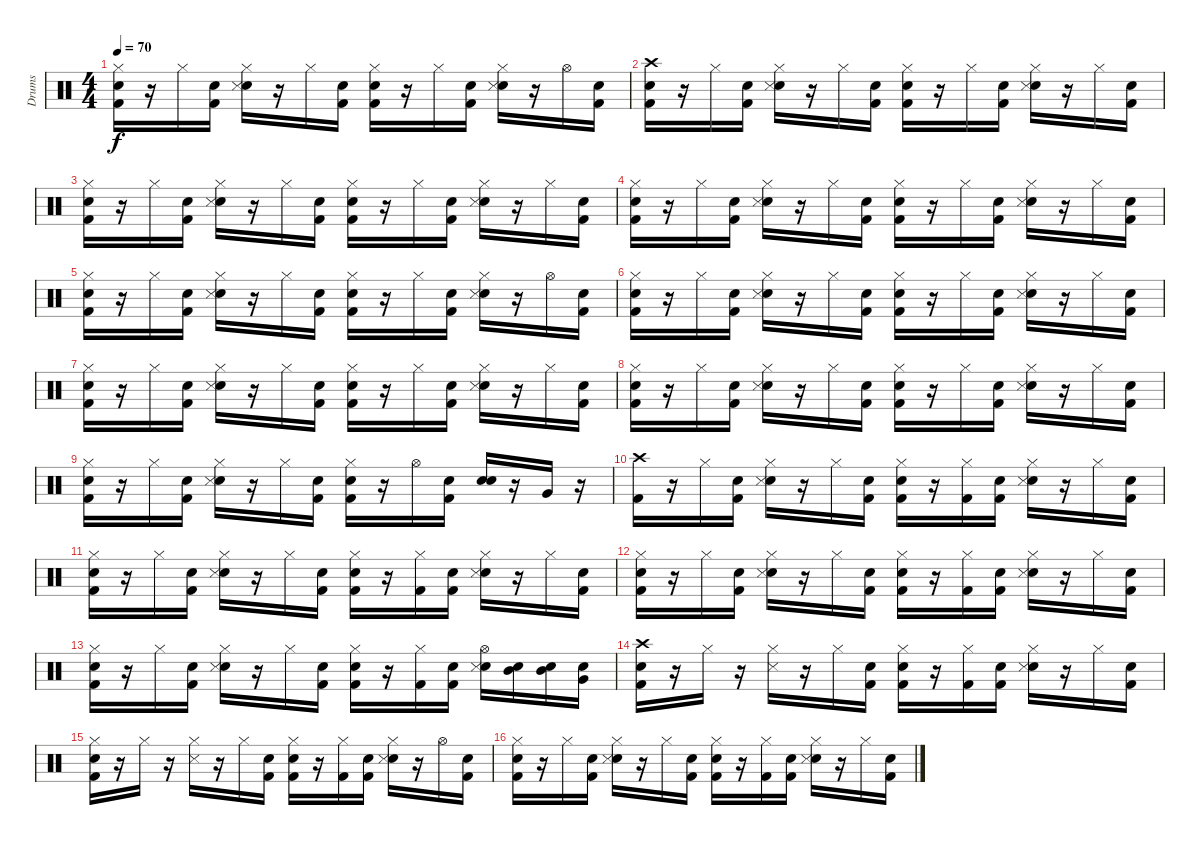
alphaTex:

\track ("Drums" "Drums") {instrument percussion}
\staff {score}
\articulation defaults
\ts (4 4)
\tempo 70
\clef neutral
\ks c
("Snare (hit)" "Kick (hit) 2" "Hi-Hat (closed)").16{dy f} r.16 "Hi-Hat (closed)".16 ("Snare (hit)" "Kick (hit) 2").16 ("Snare (hit)" "Snare (side stick) 3" "Hi-Hat (closed)").16 r.16 "Hi-Hat (closed)".16 ("Snare (hit)" "Kick (hit) 2").16 ("Snare (hit)" "Kick (hit) 2" "Hi-Hat (closed)").16 r.16 "Hi-Hat (closed)".16 ("Snare (hit)" "Kick (hit) 2").16 ("Snare (hit)" "Snare (side stick) 3" "Hi-Hat (closed)").16 r.16 "Hi-Hat (open)".16 ("Snare (hit)" "Kick (hit) 2").16 |
("Snare (hit)" "Kick (hit) 2" "Crash high (hit)").16 r.16 "Hi-Hat (closed)".16 ("Snare (hit)" "Kick (hit) 2").16 ("Snare (hit)" "Snare (side stick) 3" "Hi-Hat (closed)").16 r.16 "Hi-Hat (closed)".16 ("Snare (hit)" "Kick (hit) 2").16 ("Snare (hit)" "Kick (hit) 2" "Hi-Hat (closed)").16 r.16 "Hi-Hat (closed)".16 ("Snare (hit)" "Kick (hit) 2").16 ("Snare (hit)" "Snare (side stick) 3" "Hi-Hat (closed)").16 r.16 "Hi-Hat (closed)".16 ("Snare (hit)" "Kick (hit) 2").16 |
("Snare (hit)" "Kick (hit) 2" "Hi-Hat (closed)").16 r.16 "Hi-Hat (closed)".16 ("Snare (hit)" "Kick (hit) 2").16 ("Snare (hit)" "Snare (side stick) 3" "Hi-Hat (closed)").16 r.16 "Hi-Hat (closed)".16 ("Snare (hit)" "Kick (hit) 2").16 ("Snare (hit)" "Kick (hit) 2" "Hi-Hat (closed)").16 r.16 "Hi-Hat (closed)".16 ("Snare (hit)" "Kick (hit) 2").16 ("Snare (hit)" "Snare (side stick) 3" "Hi-Hat (closed)").16 r.16 "Hi-Hat (closed)".16 ("Snare (hit)" "Kick (hit) 2").16 |
("Snare (hit)" "Kick (hit) 2" "Hi-Hat (closed)").16 r.16 "Hi-Hat (closed)".16 ("Snare (hit)" "Kick (hit) 2").16 ("Snare (hit)" "Snare (side stick) 3" "Hi-Hat (closed)").16 r.16 "Hi-Hat (closed)".16 ("Snare (hit)" "Kick (hit) 2").16 ("Snare (hit)" "Kick (hit) 2" "Hi-Hat (closed)").16 r.16 "Hi-Hat (closed)".16 ("Snare (hit)" "Kick (hit) 2").16 ("Snare (hit)" "Snare (side stick) 3" "Hi-Hat (closed)").16 r.16 "Hi-Hat (closed)".16 ("Snare (hit)" "Kick (hit) 2").16 |
("Snare (hit)" "Kick (hit) 2" "Hi-Hat (closed)").16 r.16 "Hi-Hat (closed)".16 ("Snare (hit)" "Kick (hit) 2").16 ("Snare (hit)" "Snare (side stick) 3" "Hi-Hat (closed)").16 r.16 "Hi-Hat (closed)".16 ("Snare (hit)" "Kick (hit) 2").16 ("Snare (hit)" "Kick (hit) 2" "Hi-Hat (closed)").16 r.16 "Hi-Hat (closed)".16 ("Snare (hit)" "Kick (hit) 2").16 ("Snare (hit)" "Snare (side stick) 3" "Hi-Hat (closed)").16 r.16 "Hi-Hat (open)".16 ("Snare (hit)" "Kick (hit) 2").16 |
("Snare (hit)" "Kick (hit) 2" "Hi-Hat (closed)").16 r.16 "Hi-Hat (closed)".16 ("Snare (hit)" "Kick (hit) 2").16 ("Snare (hit)" "Snare (side stick) 3" "Hi-Hat (closed)").16 r.16 "Hi-Hat (closed)".16 ("Snare (hit)" "Kick (hit) 2").16 ("Snare (hit)" "Kick (hit) 2" "Hi-Hat (closed)").16 r.16 "Hi-Hat (closed)".16 ("Snare (hit)" "Kick (hit) 2").16 ("Snare (hit)" "Snare (side stick) 3" "Hi-Hat (closed)").16 r.16 "Hi-Hat (closed)".16 ("Snare (hit)" "Kick (hit) 2").16 |
("Snare (hit)" "Kick (hit) 2" "Hi-Hat (closed)").16 r.16 "Hi-Hat (closed)".16 ("Snare (hit)" "Kick (hit) 2").16 ("Snare (hit)" "Snare (side stick) 3" "Hi-Hat (closed)").16 r.16 "Hi-Hat (closed)".16 ("Snare (hit)" "Kick (hit) 2").16 ("Snare (hit)" "Kick (hit) 2" "Hi-Hat (closed)").16 r.16 "Hi-Hat (closed)".16 ("Snare (hit)" "Kick (hit) 2").16 ("Snare (hit)" "Snare (side stick) 3" "Hi-Hat (closed)").16 r.16 "Hi-Hat (closed)".16 ("Snare (hit)" "Kick (hit) 2").16 |
("Snare (hit)" "Kick (hit) 2" "Hi-Hat (closed)").16 r.16 "Hi-Hat (closed)".16 ("Snare (hit)" "Kick (hit) 2").16 ("Snare (hit)" "Snare (side stick) 3" "Hi-Hat (closed)").16 r.16 "Hi-Hat (closed)".16 ("Snare (hit)" "Kick (hit) 2").16 ("Snare (hit)" "Kick (hit) 2" "Hi-Hat (closed)").16 r.16 "Hi-Hat (closed)".16 ("Snare (hit)" "Kick (hit) 2").16 ("Snare (hit)" "Snare (side stick) 3" "Hi-Hat (closed)").16 r.16 "Hi-Hat (closed)".16 ("Snare (hit)" "Kick (hit) 2").16 |
("Snare (hit)" "Kick (hit) 2" "Hi-Hat (closed)").16 r.16 "Hi-Hat (closed)".16 ("Snare (hit)" "Kick (hit) 2").16 ("Snare (hit)" "Snare (side stick) 3" "Hi-Hat (closed)").16 r.16 "Hi-Hat (closed)".16 ("Snare (hit)" "Kick (hit) 2").16 ("Snare (hit)" "Kick (hit) 2" "Hi-Hat (closed)").16 r.16 "Hi-Hat (open)".16 ("Snare (hit)" "Kick (hit) 2").16 ("Snare (hit)" "Snare (hit) 2").16 r.16 "Very Low Tom (hit)".16 r.16 |
("Kick (hit) 2" "Crash high (hit)").16 r.16 "Hi-Hat (closed)".16 ("Snare (hit)" "Kick (hit) 2").16 ("Snare (hit)" "Snare (side stick) 3" "Hi-Hat (closed)").16 r.16 "Hi-Hat (closed)".16 ("Snare (hit)" "Kick (hit) 2").16 ("Snare (hit)" "Kick (hit) 2" "Hi-Hat (closed)").16 r.16 ("Kick (hit) 2" "Hi-Hat (closed)").16 ("Snare (hit)" "Kick (hit) 2").16 ("Snare (hit)" "Snare (side stick) 3" "Hi-Hat (closed)").16 r.16 "Hi-Hat (closed)".16 ("Snare (hit)" "Kick (hit) 2").16 |
("Snare (hit)" "Kick (hit) 2" "Hi-Hat (closed)").16 r.16 "Hi-Hat (closed)".16 ("Snare (hit)" "Kick (hit) 2").16 ("Snare (hit)" "Snare (side stick) 3" "Hi-Hat (closed)").16 r.16 "Hi-Hat (closed)".16 ("Snare (hit)" "Kick (hit) 2").16 ("Snare (hit)" "Kick (hit) 2" "Hi-Hat (closed)").16 r.16 ("Kick (hit) 2" "Hi-Hat (closed)").16 ("Snare (hit)" "Kick (hit) 2").16 ("Snare (hit)" "Snare (side stick) 3" "Hi-Hat (closed)").16 r.16 "Hi-Hat (closed)".16 ("Snare (hit)" "Kick (hit) 2").16 |
("Snare (hit)" "Kick (hit) 2" "Hi-Hat (closed)").16 r.16 "Hi-Hat (closed)".16 ("Snare (hit)" "Kick (hit) 2").16 ("Snare (hit)" "Snare (side stick) 3" "Hi-Hat (closed)").16 r.16 "Hi-Hat (closed)".16 ("Snare (hit)" "Kick (hit) 2").16 ("Snare (hit)" "Kick (hit) 2" "Hi-Hat (closed)").16 r.16 ("Kick (hit) 2" "Hi-Hat (closed)").16 ("Snare (hit)" "Kick (hit) 2").16 ("Snare (hit)" "Snare (side stick) 3" "Hi-Hat (closed)").16 r.16 "Hi-Hat (closed)".16 ("Snare (hit)" "Kick (hit) 2").16 |
("Snare (hit)" "Kick (hit) 2" "Hi-Hat (closed)").16 r.16 "Hi-Hat (closed)".16 ("Snare (hit)" "Kick (hit) 2").16 ("Snare (hit)" "Snare (side stick) 3" "Hi-Hat (closed)").16 r.16 "Hi-Hat (closed)".16 ("Snare (hit)" "Kick (hit) 2").16 ("Snare (hit)" "Kick (hit) 2" "Hi-Hat (closed)").16 r.16 ("Kick (hit) 2" "Hi-Hat (closed)").16 ("Snare (hit)" "Kick (hit) 2").16 ("Snare (hit)" "Snare (side stick) 3" "Hi-Hat (open)").16 ("Snare (hit)" "Mid Tom (hit)").16 ("Snare (hit)" "Mid Tom (hit)").16 ("Snare (hit)" "Very Low Tom (hit)").16 |
("Snare (hit)" "Kick (hit) 2" "Crash high (hit)").16 r.16 "Hi-Hat (closed)".16 r.16 ("Snare (side stick) 3" "Hi-Hat (closed)").16 r.16 "Hi-Hat (closed)".16 ("Snare (hit)" "Kick (hit) 2").16 ("Snare (hit)" "Kick (hit) 2" "Hi-Hat (closed)").16 r.16 ("Kick (hit) 2" "Hi-Hat (closed)").16 ("Snare (hit)" "Kick (hit) 2").16 ("Snare (hit)" "Snare (side stick) 3" "Hi-Hat (closed)").16 r.16 "Hi-Hat (closed)".16 ("Snare (hit)" "Kick (hit) 2").16 |
("Snare (hit)" "Kick (hit) 2" "Hi-Hat (closed)").16 r.16 "Hi-Hat (closed)".16 r.16 ("Snare (side stick) 3" "Hi-Hat (closed)").16 r.16 "Hi-Hat (closed)".16 ("Snare (hit)" "Kick (hit) 2").16 ("Snare (hit)" "Kick (hit) 2" "Hi-Hat (closed)").16 r.16 ("Kick (hit) 2" "Hi-Hat (closed)").16 ("Snare (hit)" "Kick (hit) 2").16 ("Snare (hit)" "Snare (side stick) 3" "Hi-Hat (closed)").16 r.16 "Hi-Hat (open)".16 ("Snare (hit)" "Kick (hit) 2").16 |
("Snare (hit)" "Kick (hit) 2" "Hi-Hat (closed)").16 r.16 "Hi-Hat (closed)".16 ("Snare (hit)" "Kick (hit) 2").16 ("Snare (hit)" "Snare (side stick) 3" "Hi-Hat (closed)").16 r.16 "Hi-Hat (closed)".16 ("Snare (hit)" "Kick (hit) 2").16 ("Snare (hit)" "Kick (hit) 2" "Hi-Hat (closed)").16 r.16 ("Kick (hit) 2" "Hi-Hat (closed)").16 ("Snare (hit)" "Kick (hit) 2").16 ("Snare (hit)" "Snare (side stick) 3" "Hi-Hat (closed)").16 r.16 "Hi-Hat (closed)".16 ("Snare (hit)" "Kick (hit) 2").16
